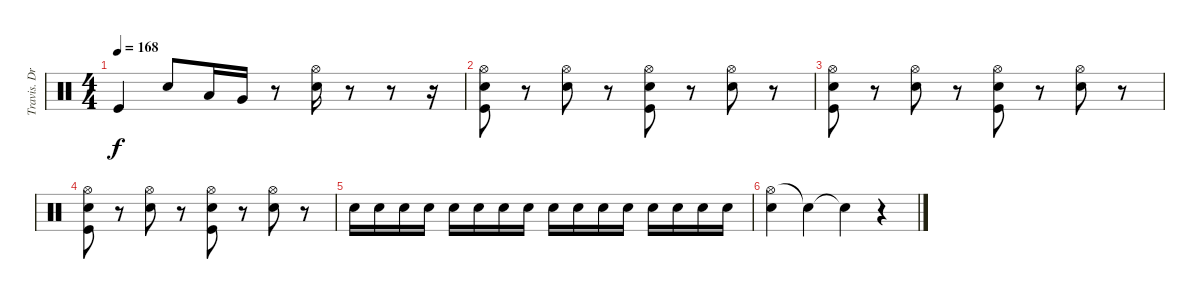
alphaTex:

\track ("Travis. Drums" "Travis. Dr") {instrument percussion}
\staff {score}
\articulation defaults
\ts (4 4)
\tempo 168
\clef neutral
\ks c "Kick (hit)".4{dy f} "Snare (hit) 2".8 "Low Tom (hit)".16 "Very Low Tom (hit)".16
r.8 ("Hi-Hat (open)" "Snare (hit) 2").16 r.8 r.8 r.16 |
("Hi-Hat (open)" "Snare (hit) 2" "Kick (hit)").8 r.8 ("Hi-Hat (open)" "Snare (hit) 2").8 r.8 ("Hi-Hat (open)" "Snare (hit) 2" "Kick (hit)").8 r.8 ("Hi-Hat (open)" "Snare (hit) 2").8 r.8 |
("Hi-Hat (open)" "Snare (hit) 2" "Kick (hit)").8 r.8 ("Hi-Hat (open)" "Snare (hit) 2").8 r.8 ("Hi-Hat (open)" "Snare (hit) 2" "Kick (hit)").8 r.8 ("Hi-Hat (open)" "Snare (hit) 2").8 r.8 |
("Hi-Hat (open)" "Snare (hit) 2" "Kick (hit)").8 r.8 ("Hi-Hat (open)" "Snare (hit) 2").8 r.8 ("Hi-Hat (open)" "Snare (hit) 2" "Kick (hit)").8 r.8 ("Hi-Hat (open)" "Snare (hit) 2").8 r.8 |
"Snare (hit) 2".16 "Snare (hit) 2".16 "Snare (hit) 2".16 "Snare (hit) 2".16 "Snare (hit) 2".16 "Snare (hit) 2".16 "Snare (hit) 2".16 "Snare (hit) 2".16 "Snare (hit) 2".16 "Snare (hit) 2".16 "Snare (hit) 2".16 "Snare (hit) 2".16 "Snare (hit) 2".16 "Snare (hit) 2".16 "Snare (hit) 2".16 "Snare (hit) 2".16 |
("Hi-Hat (open)" "Snare (hit) 2").4 "Snare (hit)"{t}.4 "Snare (hit)"{t}.4 r.4
